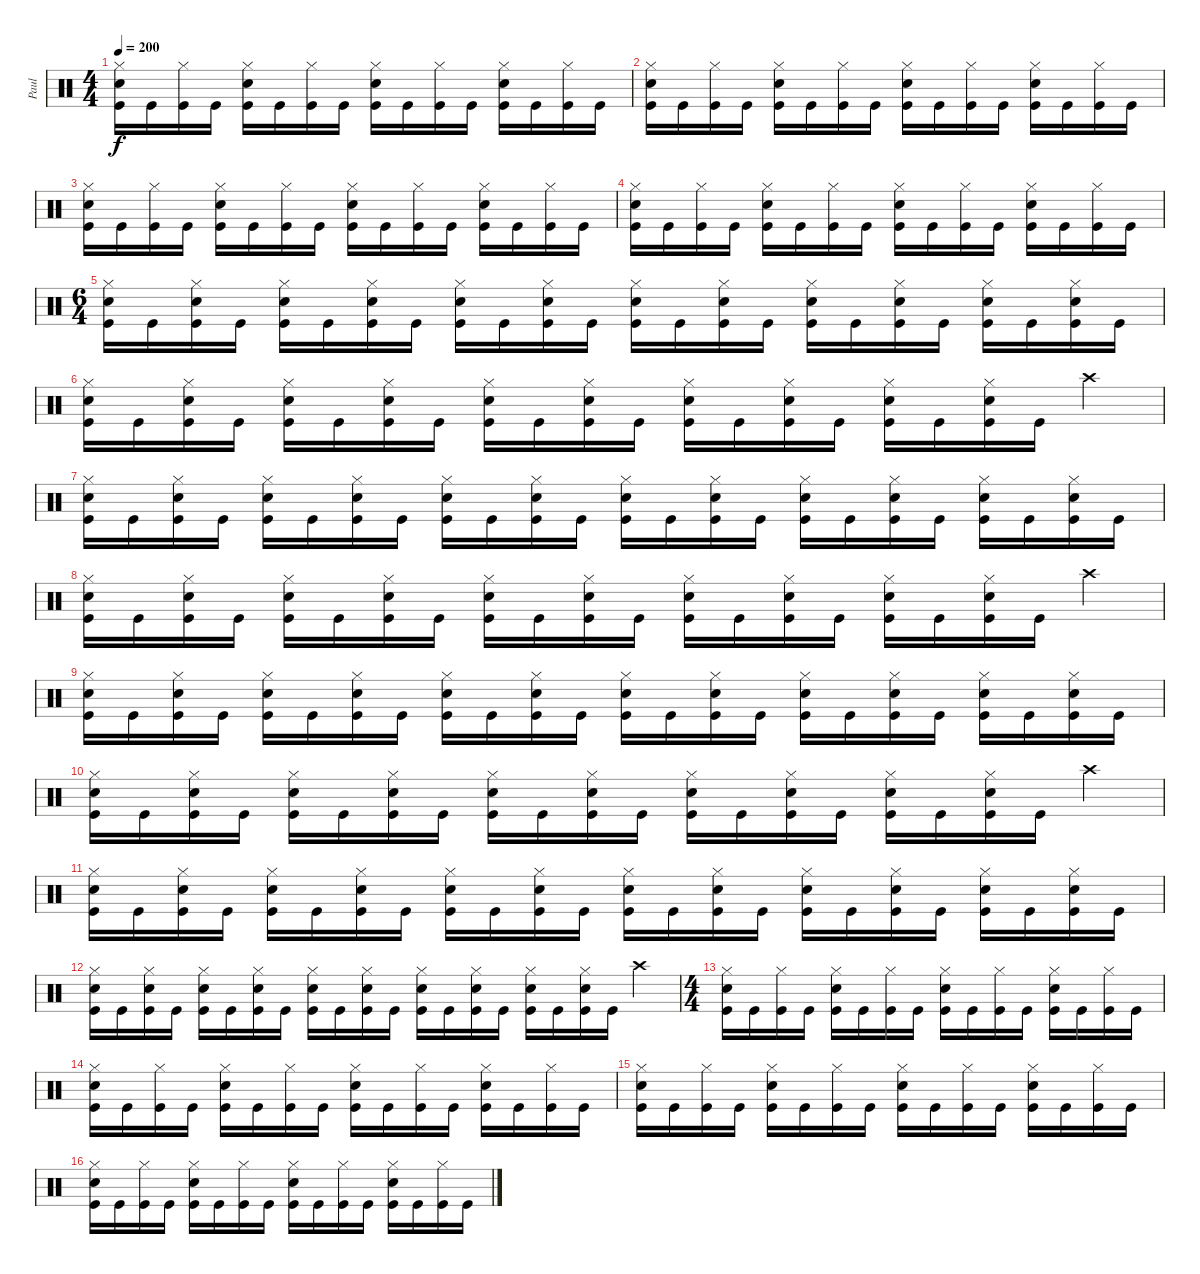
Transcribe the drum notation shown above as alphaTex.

\track ("Paul" "Paul") {instrument percussion}
\staff {score}
\articulation defaults
\ts (4 4)
\tempo 200
\clef neutral
\ks c
("Kick (hit)" "Snare (hit) 2" "Hi-Hat (closed)").16{dy f} "Kick (hit)".16 ("Kick (hit)" "Hi-Hat (closed)").16 "Kick (hit)".16 ("Kick (hit)" "Snare (hit) 2" "Hi-Hat (closed)").16 "Kick (hit)".16 ("Kick (hit)" "Hi-Hat (closed)").16 "Kick (hit)".16 ("Kick (hit)" "Snare (hit) 2" "Hi-Hat (closed)").16 "Kick (hit)".16 ("Kick (hit)" "Hi-Hat (closed)").16 "Kick (hit)".16 ("Kick (hit)" "Snare (hit) 2" "Hi-Hat (closed)").16 "Kick (hit)".16 ("Kick (hit)" "Hi-Hat (closed)").16 "Kick (hit)".16 |
("Kick (hit)" "Snare (hit) 2" "Hi-Hat (closed)").16 "Kick (hit)".16 ("Kick (hit)" "Hi-Hat (closed)").16 "Kick (hit)".16 ("Kick (hit)" "Snare (hit) 2" "Hi-Hat (closed)").16 "Kick (hit)".16 ("Kick (hit)" "Hi-Hat (closed)").16 "Kick (hit)".16 ("Kick (hit)" "Snare (hit) 2" "Hi-Hat (closed)").16 "Kick (hit)".16 ("Kick (hit)" "Hi-Hat (closed)").16 "Kick (hit)".16 ("Kick (hit)" "Snare (hit) 2" "Hi-Hat (closed)").16 "Kick (hit)".16 ("Kick (hit)" "Hi-Hat (closed)").16 "Kick (hit)".16 |
("Kick (hit)" "Snare (hit) 2" "Hi-Hat (closed)").16 "Kick (hit)".16 ("Kick (hit)" "Hi-Hat (closed)").16 "Kick (hit)".16 ("Kick (hit)" "Snare (hit) 2" "Hi-Hat (closed)").16 "Kick (hit)".16 ("Kick (hit)" "Hi-Hat (closed)").16 "Kick (hit)".16 ("Kick (hit)" "Snare (hit) 2" "Hi-Hat (closed)").16 "Kick (hit)".16 ("Kick (hit)" "Hi-Hat (closed)").16 "Kick (hit)".16 ("Kick (hit)" "Snare (hit) 2" "Hi-Hat (closed)").16 "Kick (hit)".16 ("Kick (hit)" "Hi-Hat (closed)").16 "Kick (hit)".16 |
("Kick (hit)" "Snare (hit) 2" "Hi-Hat (closed)").16 "Kick (hit)".16 ("Kick (hit)" "Hi-Hat (closed)").16 "Kick (hit)".16 ("Kick (hit)" "Snare (hit) 2" "Hi-Hat (closed)").16 "Kick (hit)".16 ("Kick (hit)" "Hi-Hat (closed)").16 "Kick (hit)".16 ("Kick (hit)" "Snare (hit) 2" "Hi-Hat (closed)").16 "Kick (hit)".16 ("Kick (hit)" "Hi-Hat (closed)").16 "Kick (hit)".16 ("Kick (hit)" "Snare (hit) 2" "Hi-Hat (closed)").16 "Kick (hit)".16 ("Kick (hit)" "Hi-Hat (closed)").16 "Kick (hit)".16 |
\ts (6 4)
("Kick (hit)" "Snare (hit) 2" "Hi-Hat (closed)").16 "Kick (hit)".16 ("Kick (hit)" "Snare (hit) 2" "Hi-Hat (closed)").16 "Kick (hit)".16 ("Kick (hit)" "Snare (hit) 2" "Hi-Hat (closed)").16 "Kick (hit)".16 ("Kick (hit)" "Snare (hit) 2" "Hi-Hat (closed)").16 "Kick (hit)".16 ("Kick (hit)" "Snare (hit) 2" "Hi-Hat (closed)").16 "Kick (hit)".16 ("Kick (hit)" "Snare (hit) 2" "Hi-Hat (closed)").16 "Kick (hit)".16 ("Kick (hit)" "Snare (hit) 2" "Hi-Hat (closed)").16 "Kick (hit)".16 ("Kick (hit)" "Snare (hit) 2" "Hi-Hat (closed)").16 "Kick (hit)".16 ("Kick (hit)" "Snare (hit) 2" "Hi-Hat (closed)").16 "Kick (hit)".16 ("Kick (hit)" "Snare (hit) 2" "Hi-Hat (closed)").16 "Kick (hit)".16 ("Kick (hit)" "Snare (hit) 2" "Hi-Hat (closed)").16 "Kick (hit)".16 ("Kick (hit)" "Snare (hit) 2" "Hi-Hat (closed)").16 "Kick (hit)".16 |
("Kick (hit)" "Snare (hit) 2" "Hi-Hat (closed)").16 "Kick (hit)".16 ("Kick (hit)" "Snare (hit) 2" "Hi-Hat (closed)").16 "Kick (hit)".16 ("Kick (hit)" "Snare (hit) 2" "Hi-Hat (closed)").16 "Kick (hit)".16 ("Kick (hit)" "Snare (hit) 2" "Hi-Hat (closed)").16 "Kick (hit)".16 ("Kick (hit)" "Snare (hit) 2" "Hi-Hat (closed)").16 "Kick (hit)".16 ("Kick (hit)" "Snare (hit) 2" "Hi-Hat (closed)").16 "Kick (hit)".16 ("Kick (hit)" "Snare (hit) 2" "Hi-Hat (closed)").16 "Kick (hit)".16 ("Kick (hit)" "Snare (hit) 2" "Hi-Hat (closed)").16 "Kick (hit)".16 ("Kick (hit)" "Snare (hit) 2" "Hi-Hat (closed)").16 "Kick (hit)".16 ("Kick (hit)" "Snare (hit) 2" "Hi-Hat (closed)").16 "Kick (hit)".16 "Crash high (hit)".4 |
("Kick (hit)" "Snare (hit) 2" "Hi-Hat (closed)").16 "Kick (hit)".16 ("Kick (hit)" "Snare (hit) 2" "Hi-Hat (closed)").16 "Kick (hit)".16 ("Kick (hit)" "Snare (hit) 2" "Hi-Hat (closed)").16 "Kick (hit)".16 ("Kick (hit)" "Snare (hit) 2" "Hi-Hat (closed)").16 "Kick (hit)".16 ("Kick (hit)" "Snare (hit) 2" "Hi-Hat (closed)").16 "Kick (hit)".16 ("Kick (hit)" "Snare (hit) 2" "Hi-Hat (closed)").16 "Kick (hit)".16 ("Kick (hit)" "Snare (hit) 2" "Hi-Hat (closed)").16 "Kick (hit)".16 ("Kick (hit)" "Snare (hit) 2" "Hi-Hat (closed)").16 "Kick (hit)".16 ("Kick (hit)" "Snare (hit) 2" "Hi-Hat (closed)").16 "Kick (hit)".16 ("Kick (hit)" "Snare (hit) 2" "Hi-Hat (closed)").16 "Kick (hit)".16 ("Kick (hit)" "Snare (hit) 2" "Hi-Hat (closed)").16 "Kick (hit)".16 ("Kick (hit)" "Snare (hit) 2" "Hi-Hat (closed)").16 "Kick (hit)".16 |
("Kick (hit)" "Snare (hit) 2" "Hi-Hat (closed)").16 "Kick (hit)".16 ("Kick (hit)" "Snare (hit) 2" "Hi-Hat (closed)").16 "Kick (hit)".16 ("Kick (hit)" "Snare (hit) 2" "Hi-Hat (closed)").16 "Kick (hit)".16 ("Kick (hit)" "Snare (hit) 2" "Hi-Hat (closed)").16 "Kick (hit)".16 ("Kick (hit)" "Snare (hit) 2" "Hi-Hat (closed)").16 "Kick (hit)".16 ("Kick (hit)" "Snare (hit) 2" "Hi-Hat (closed)").16 "Kick (hit)".16 ("Kick (hit)" "Snare (hit) 2" "Hi-Hat (closed)").16 "Kick (hit)".16 ("Kick (hit)" "Snare (hit) 2" "Hi-Hat (closed)").16 "Kick (hit)".16 ("Kick (hit)" "Snare (hit) 2" "Hi-Hat (closed)").16 "Kick (hit)".16 ("Kick (hit)" "Snare (hit) 2" "Hi-Hat (closed)").16 "Kick (hit)".16 "Crash high (hit)".4 |
("Kick (hit)" "Snare (hit) 2" "Hi-Hat (closed)").16 "Kick (hit)".16 ("Kick (hit)" "Snare (hit) 2" "Hi-Hat (closed)").16 "Kick (hit)".16 ("Kick (hit)" "Snare (hit) 2" "Hi-Hat (closed)").16 "Kick (hit)".16 ("Kick (hit)" "Snare (hit) 2" "Hi-Hat (closed)").16 "Kick (hit)".16 ("Kick (hit)" "Snare (hit) 2" "Hi-Hat (closed)").16 "Kick (hit)".16 ("Kick (hit)" "Snare (hit) 2" "Hi-Hat (closed)").16 "Kick (hit)".16 ("Kick (hit)" "Snare (hit) 2" "Hi-Hat (closed)").16 "Kick (hit)".16 ("Kick (hit)" "Snare (hit) 2" "Hi-Hat (closed)").16 "Kick (hit)".16 ("Kick (hit)" "Snare (hit) 2" "Hi-Hat (closed)").16 "Kick (hit)".16 ("Kick (hit)" "Snare (hit) 2" "Hi-Hat (closed)").16 "Kick (hit)".16 ("Kick (hit)" "Snare (hit) 2" "Hi-Hat (closed)").16 "Kick (hit)".16 ("Kick (hit)" "Snare (hit) 2" "Hi-Hat (closed)").16 "Kick (hit)".16 |
("Kick (hit)" "Snare (hit) 2" "Hi-Hat (closed)").16 "Kick (hit)".16 ("Kick (hit)" "Snare (hit) 2" "Hi-Hat (closed)").16 "Kick (hit)".16 ("Kick (hit)" "Snare (hit) 2" "Hi-Hat (closed)").16 "Kick (hit)".16 ("Kick (hit)" "Snare (hit) 2" "Hi-Hat (closed)").16 "Kick (hit)".16 ("Kick (hit)" "Snare (hit) 2" "Hi-Hat (closed)").16 "Kick (hit)".16 ("Kick (hit)" "Snare (hit) 2" "Hi-Hat (closed)").16 "Kick (hit)".16 ("Kick (hit)" "Snare (hit) 2" "Hi-Hat (closed)").16 "Kick (hit)".16 ("Kick (hit)" "Snare (hit) 2" "Hi-Hat (closed)").16 "Kick (hit)".16 ("Kick (hit)" "Snare (hit) 2" "Hi-Hat (closed)").16 "Kick (hit)".16 ("Kick (hit)" "Snare (hit) 2" "Hi-Hat (closed)").16 "Kick (hit)".16 "Crash high (hit)".4 |
("Kick (hit)" "Snare (hit) 2" "Hi-Hat (closed)").16 "Kick (hit)".16 ("Kick (hit)" "Snare (hit) 2" "Hi-Hat (closed)").16 "Kick (hit)".16 ("Kick (hit)" "Snare (hit) 2" "Hi-Hat (closed)").16 "Kick (hit)".16 ("Kick (hit)" "Snare (hit) 2" "Hi-Hat (closed)").16 "Kick (hit)".16 ("Kick (hit)" "Snare (hit) 2" "Hi-Hat (closed)").16 "Kick (hit)".16 ("Kick (hit)" "Snare (hit) 2" "Hi-Hat (closed)").16 "Kick (hit)".16 ("Kick (hit)" "Snare (hit) 2" "Hi-Hat (closed)").16 "Kick (hit)".16 ("Kick (hit)" "Snare (hit) 2" "Hi-Hat (closed)").16 "Kick (hit)".16 ("Kick (hit)" "Snare (hit) 2" "Hi-Hat (closed)").16 "Kick (hit)".16 ("Kick (hit)" "Snare (hit) 2" "Hi-Hat (closed)").16 "Kick (hit)".16 ("Kick (hit)" "Snare (hit) 2" "Hi-Hat (closed)").16 "Kick (hit)".16 ("Kick (hit)" "Snare (hit) 2" "Hi-Hat (closed)").16 "Kick (hit)".16 |
("Kick (hit)" "Snare (hit) 2" "Hi-Hat (closed)").16 "Kick (hit)".16 ("Kick (hit)" "Snare (hit) 2" "Hi-Hat (closed)").16 "Kick (hit)".16 ("Kick (hit)" "Snare (hit) 2" "Hi-Hat (closed)").16 "Kick (hit)".16 ("Kick (hit)" "Snare (hit) 2" "Hi-Hat (closed)").16 "Kick (hit)".16 ("Kick (hit)" "Snare (hit) 2" "Hi-Hat (closed)").16 "Kick (hit)".16 ("Kick (hit)" "Snare (hit) 2" "Hi-Hat (closed)").16 "Kick (hit)".16 ("Kick (hit)" "Snare (hit) 2" "Hi-Hat (closed)").16 "Kick (hit)".16 ("Kick (hit)" "Snare (hit) 2" "Hi-Hat (closed)").16 "Kick (hit)".16 ("Kick (hit)" "Snare (hit) 2" "Hi-Hat (closed)").16 "Kick (hit)".16 ("Kick (hit)" "Snare (hit) 2" "Hi-Hat (closed)").16 "Kick (hit)".16 "Crash high (hit)".4 |
\ts (4 4)
("Kick (hit)" "Snare (hit) 2" "Hi-Hat (closed)").16 "Kick (hit)".16 ("Kick (hit)" "Hi-Hat (closed)").16 "Kick (hit)".16 ("Kick (hit)" "Snare (hit) 2" "Hi-Hat (closed)").16 "Kick (hit)".16 ("Kick (hit)" "Hi-Hat (closed)").16 "Kick (hit)".16 ("Kick (hit)" "Snare (hit) 2" "Hi-Hat (closed)").16 "Kick (hit)".16 ("Kick (hit)" "Hi-Hat (closed)").16 "Kick (hit)".16 ("Kick (hit)" "Snare (hit) 2" "Hi-Hat (closed)").16 "Kick (hit)".16 ("Kick (hit)" "Hi-Hat (closed)").16 "Kick (hit)".16 |
("Kick (hit)" "Snare (hit) 2" "Hi-Hat (closed)").16 "Kick (hit)".16 ("Kick (hit)" "Hi-Hat (closed)").16 "Kick (hit)".16 ("Kick (hit)" "Snare (hit) 2" "Hi-Hat (closed)").16 "Kick (hit)".16 ("Kick (hit)" "Hi-Hat (closed)").16 "Kick (hit)".16 ("Kick (hit)" "Snare (hit) 2" "Hi-Hat (closed)").16 "Kick (hit)".16 ("Kick (hit)" "Hi-Hat (closed)").16 "Kick (hit)".16 ("Kick (hit)" "Snare (hit) 2" "Hi-Hat (closed)").16 "Kick (hit)".16 ("Kick (hit)" "Hi-Hat (closed)").16 "Kick (hit)".16 |
("Kick (hit)" "Snare (hit) 2" "Hi-Hat (closed)").16 "Kick (hit)".16 ("Kick (hit)" "Hi-Hat (closed)").16 "Kick (hit)".16 ("Kick (hit)" "Snare (hit) 2" "Hi-Hat (closed)").16 "Kick (hit)".16 ("Kick (hit)" "Hi-Hat (closed)").16 "Kick (hit)".16 ("Kick (hit)" "Snare (hit) 2" "Hi-Hat (closed)").16 "Kick (hit)".16 ("Kick (hit)" "Hi-Hat (closed)").16 "Kick (hit)".16 ("Kick (hit)" "Snare (hit) 2" "Hi-Hat (closed)").16 "Kick (hit)".16 ("Kick (hit)" "Hi-Hat (closed)").16 "Kick (hit)".16 |
("Kick (hit)" "Snare (hit) 2" "Hi-Hat (closed)").16 "Kick (hit)".16 ("Kick (hit)" "Hi-Hat (closed)").16 "Kick (hit)".16 ("Kick (hit)" "Snare (hit) 2" "Hi-Hat (closed)").16 "Kick (hit)".16 ("Kick (hit)" "Hi-Hat (closed)").16 "Kick (hit)".16 ("Kick (hit)" "Snare (hit) 2" "Hi-Hat (closed)").16 "Kick (hit)".16 ("Kick (hit)" "Hi-Hat (closed)").16 "Kick (hit)".16 ("Kick (hit)" "Snare (hit) 2" "Hi-Hat (closed)").16 "Kick (hit)".16 ("Kick (hit)" "Hi-Hat (closed)").16 "Kick (hit)".16
